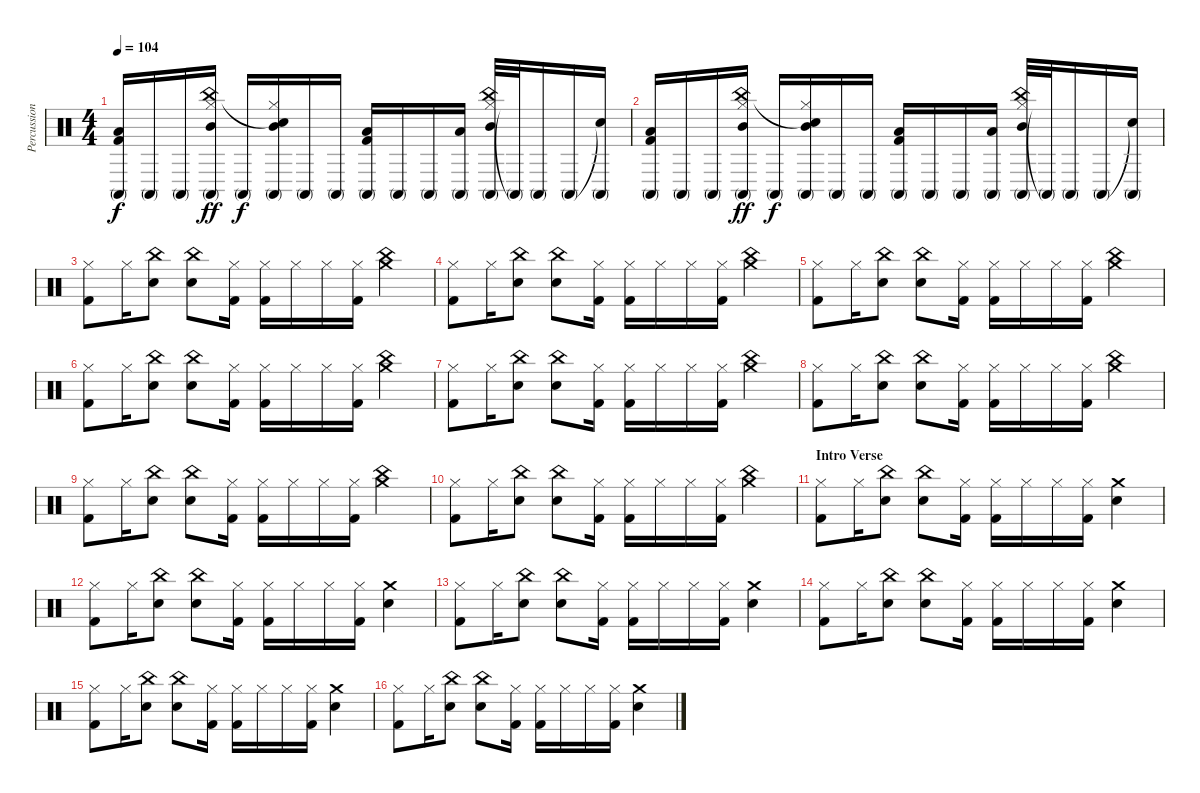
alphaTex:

\track ("Percussion" "Percussion") {instrument percussion}
\staff {score}
\articulation defaults
\ts (4 4)
\tempo 104
\clef neutral
\ks c
("Kick (hit) 2" "Low Tom (hit)" "Conga high (mute)").16{dy f} "Conga high (mute)".16 "Conga high (mute)".16 ("Hi-Hat (closed)" "China (hit)" "Mid Tom (hit)" "Conga high (mute)").16{dy ff} "Conga high (mute)".16{dy f} ("Hi-Hat (closed)" "Snare (hit)"{t} "Mid Tom (hit)" "Conga high (mute)").16 "Conga high (mute)".16 "Conga high (mute)".16 ("Kick (hit) 2" "Low Tom (hit)" "Conga high (mute)").16 "Conga high (mute)".16 "Conga high (mute)".16 ("Low Tom (hit)" "Conga high (mute)").16 ("Hi-Hat (closed)" "China (hit)" "Mid Tom (hit)" "Conga high (mute)").32 "Conga high (mute)"{t}.32 "Conga high (mute)".16 "Conga high (mute)".16 ("Snare (hit)"{t} "Conga high (mute)").16 |
("Kick (hit) 2" "Low Tom (hit)" "Conga high (mute)").16 "Conga high (mute)".16 "Conga high (mute)".16 ("Hi-Hat (closed)" "China (hit)" "Mid Tom (hit)" "Conga high (mute)").16{dy ff} "Conga high (mute)".16{dy f} ("Hi-Hat (closed)" "Snare (hit)"{t} "Mid Tom (hit)" "Conga high (mute)").16 "Conga high (mute)".16 "Conga high (mute)".16 ("Kick (hit) 2" "Low Tom (hit)" "Conga high (mute)").16 "Conga high (mute)".16 "Conga high (mute)".16 ("Low Tom (hit)" "Conga high (mute)").16 ("Hi-Hat (closed)" "China (hit)" "Mid Tom (hit)" "Conga high (mute)").32 "Conga high (mute)"{t}.32 "Conga high (mute)".16 "Conga high (mute)".16 ("Snare (hit)"{t} "Conga high (mute)").16 |
("Hi-Hat (closed)" "Kick (hit) 2").8 "Hi-Hat (closed)".16 ("Snare (hit) 2" "China (hit)").8 ("Snare (hit) 2" "China (hit)").8 ("Hi-Hat (closed)" "Kick (hit) 2").16 ("Hi-Hat (closed)" "Kick (hit) 2").16 "Hi-Hat (closed)".16 "Hi-Hat (closed)".16 ("Hi-Hat (closed)" "Kick (hit) 2").16 ("Crash medium (hit)" "China (hit)").4 |
("Hi-Hat (closed)" "Kick (hit) 2").8 "Hi-Hat (closed)".16 ("Snare (hit) 2" "China (hit)").8 ("Snare (hit) 2" "China (hit)").8 ("Hi-Hat (closed)" "Kick (hit) 2").16 ("Hi-Hat (closed)" "Kick (hit) 2").16 "Hi-Hat (closed)".16 "Hi-Hat (closed)".16 ("Hi-Hat (closed)" "Kick (hit) 2").16 ("Crash medium (hit)" "China (hit)").4 |
("Hi-Hat (closed)" "Kick (hit) 2").8 "Hi-Hat (closed)".16 ("Snare (hit) 2" "China (hit)").8 ("Snare (hit) 2" "China (hit)").8 ("Hi-Hat (closed)" "Kick (hit) 2").16 ("Hi-Hat (closed)" "Kick (hit) 2").16 "Hi-Hat (closed)".16 "Hi-Hat (closed)".16 ("Hi-Hat (closed)" "Kick (hit) 2").16 ("Crash medium (hit)" "China (hit)").4 |
("Hi-Hat (closed)" "Kick (hit) 2").8 "Hi-Hat (closed)".16 ("Snare (hit) 2" "China (hit)").8 ("Snare (hit) 2" "China (hit)").8 ("Hi-Hat (closed)" "Kick (hit) 2").16 ("Hi-Hat (closed)" "Kick (hit) 2").16 "Hi-Hat (closed)".16 "Hi-Hat (closed)".16 ("Hi-Hat (closed)" "Kick (hit) 2").16 ("Crash medium (hit)" "China (hit)").4 |
("Hi-Hat (closed)" "Kick (hit) 2").8 "Hi-Hat (closed)".16 ("Snare (hit) 2" "China (hit)").8 ("Snare (hit) 2" "China (hit)").8 ("Hi-Hat (closed)" "Kick (hit) 2").16 ("Hi-Hat (closed)" "Kick (hit) 2").16 "Hi-Hat (closed)".16 "Hi-Hat (closed)".16 ("Hi-Hat (closed)" "Kick (hit) 2").16 ("Crash medium (hit)" "China (hit)").4 |
("Hi-Hat (closed)" "Kick (hit) 2").8 "Hi-Hat (closed)".16 ("Snare (hit) 2" "China (hit)").8 ("Snare (hit) 2" "China (hit)").8 ("Hi-Hat (closed)" "Kick (hit) 2").16 ("Hi-Hat (closed)" "Kick (hit) 2").16 "Hi-Hat (closed)".16 "Hi-Hat (closed)".16 ("Hi-Hat (closed)" "Kick (hit) 2").16 ("Crash medium (hit)" "China (hit)").4 |
("Hi-Hat (closed)" "Kick (hit) 2").8 "Hi-Hat (closed)".16 ("Snare (hit) 2" "China (hit)").8 ("Snare (hit) 2" "China (hit)").8 ("Hi-Hat (closed)" "Kick (hit) 2").16 ("Hi-Hat (closed)" "Kick (hit) 2").16 "Hi-Hat (closed)".16 "Hi-Hat (closed)".16 ("Hi-Hat (closed)" "Kick (hit) 2").16 ("Crash medium (hit)" "China (hit)").4 |
("Hi-Hat (closed)" "Kick (hit) 2").8 "Hi-Hat (closed)".16 ("Snare (hit) 2" "China (hit)").8 ("Snare (hit) 2" "China (hit)").8 ("Hi-Hat (closed)" "Kick (hit) 2").16 ("Hi-Hat (closed)" "Kick (hit) 2").16 "Hi-Hat (closed)".16 "Hi-Hat (closed)".16 ("Hi-Hat (closed)" "Kick (hit) 2").16 ("Crash medium (hit)" "China (hit)").4 |
\section ("" "Intro Verse")
("Hi-Hat (closed)" "Kick (hit) 2").8 "Hi-Hat (closed)".16 ("Snare (hit) 2" "China (hit)").8 ("Snare (hit) 2" "China (hit)").8 ("Hi-Hat (closed)" "Kick (hit) 2").16 ("Hi-Hat (closed)" "Kick (hit) 2").16 "Hi-Hat (closed)".16 "Hi-Hat (closed)".16 ("Hi-Hat (closed)" "Kick (hit) 2").16 ("Crash medium (hit)" "Snare (hit) 2").4 |
("Hi-Hat (closed)" "Kick (hit) 2").8 "Hi-Hat (closed)".16 ("Snare (hit) 2" "China (hit)").8 ("Snare (hit) 2" "China (hit)").8 ("Hi-Hat (closed)" "Kick (hit) 2").16 ("Hi-Hat (closed)" "Kick (hit) 2").16 "Hi-Hat (closed)".16 "Hi-Hat (closed)".16 ("Hi-Hat (closed)" "Kick (hit) 2").16 ("Crash medium (hit)" "Snare (hit) 2").4 |
("Hi-Hat (closed)" "Kick (hit) 2").8 "Hi-Hat (closed)".16 ("Snare (hit) 2" "China (hit)").8 ("Snare (hit) 2" "China (hit)").8 ("Hi-Hat (closed)" "Kick (hit) 2").16 ("Hi-Hat (closed)" "Kick (hit) 2").16 "Hi-Hat (closed)".16 "Hi-Hat (closed)".16 ("Hi-Hat (closed)" "Kick (hit) 2").16 ("Crash medium (hit)" "Snare (hit) 2").4 |
("Hi-Hat (closed)" "Kick (hit) 2").8 "Hi-Hat (closed)".16 ("Snare (hit) 2" "China (hit)").8 ("Snare (hit) 2" "China (hit)").8 ("Hi-Hat (closed)" "Kick (hit) 2").16 ("Hi-Hat (closed)" "Kick (hit) 2").16 "Hi-Hat (closed)".16 "Hi-Hat (closed)".16 ("Hi-Hat (closed)" "Kick (hit) 2").16 ("Crash medium (hit)" "Snare (hit) 2").4 |
("Hi-Hat (closed)" "Kick (hit) 2").8 "Hi-Hat (closed)".16 ("Snare (hit) 2" "China (hit)").8 ("Snare (hit) 2" "China (hit)").8 ("Hi-Hat (closed)" "Kick (hit) 2").16 ("Hi-Hat (closed)" "Kick (hit) 2").16 "Hi-Hat (closed)".16 "Hi-Hat (closed)".16 ("Hi-Hat (closed)" "Kick (hit) 2").16 ("Crash medium (hit)" "Snare (hit) 2").4 |
("Hi-Hat (closed)" "Kick (hit) 2").8 "Hi-Hat (closed)".16 ("Snare (hit) 2" "China (hit)").8 ("Snare (hit) 2" "China (hit)").8 ("Hi-Hat (closed)" "Kick (hit) 2").16 ("Hi-Hat (closed)" "Kick (hit) 2").16 "Hi-Hat (closed)".16 "Hi-Hat (closed)".16 ("Hi-Hat (closed)" "Kick (hit) 2").16 ("Crash medium (hit)" "Snare (hit) 2").4
